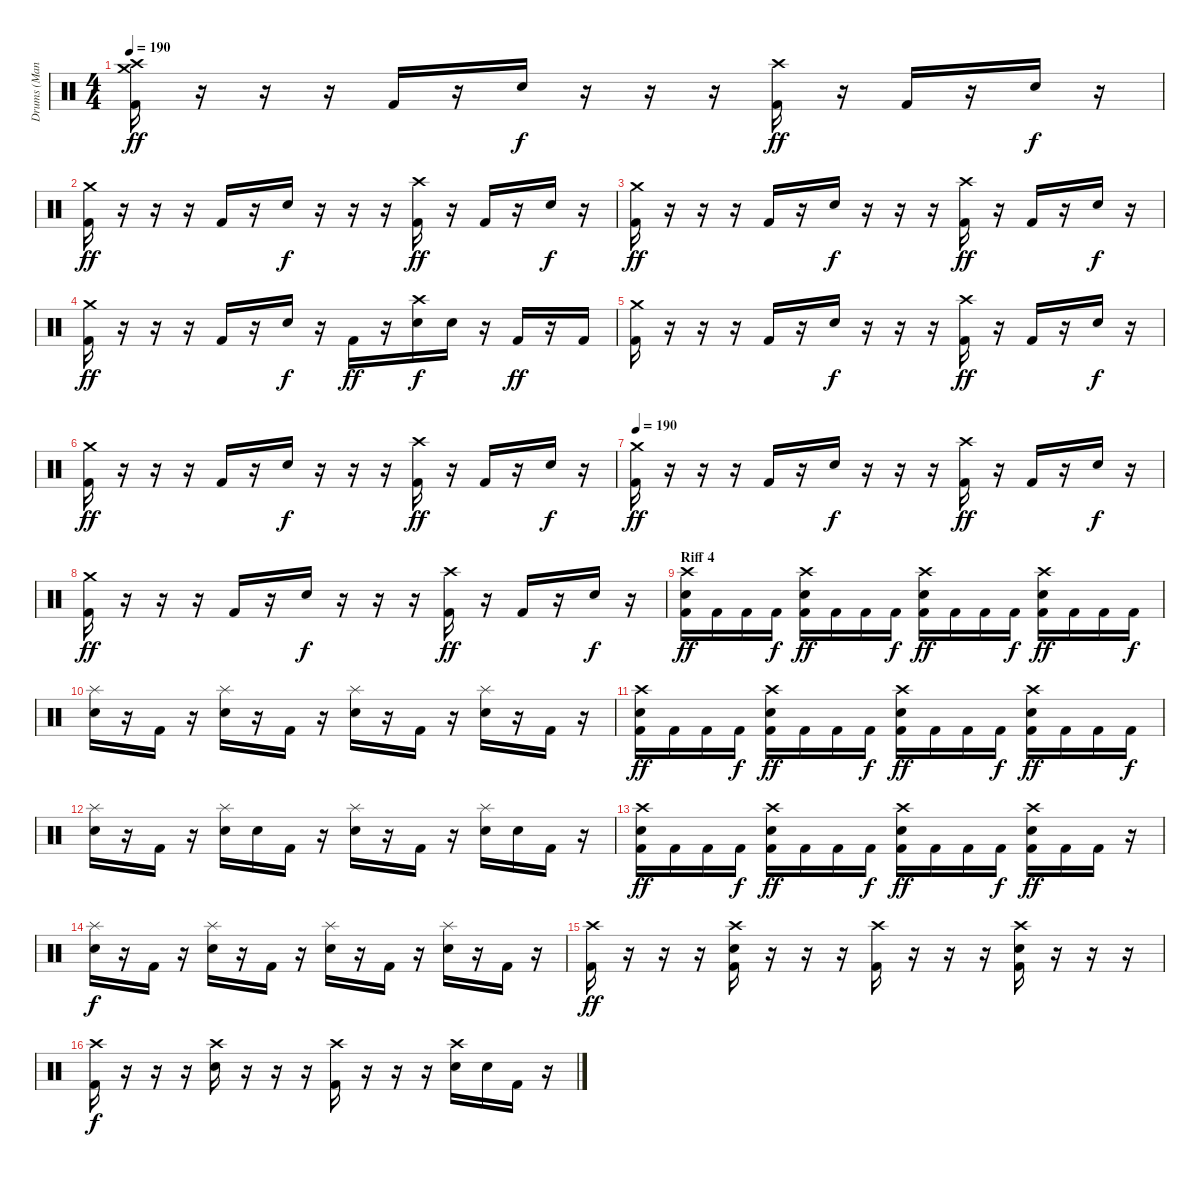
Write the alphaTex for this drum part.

\track ("Drums (Mancino)" "Drums (Man") {instrument percussion}
\staff {score}
\articulation defaults
\ts (4 4)
\tempo 190
\clef neutral
\ks c
("Crash medium (hit)" "Crash high (hit)" "Kick (hit) 2").16{dy ff} r.16 r.16 r.16 "Kick (hit) 2".16 r.16 "Electric Snare (hit)".16{dy f} r.16 r.16 r.16 ("Crash high (hit)" "Kick (hit) 2").16{dy ff} r.16 "Kick (hit) 2".16 r.16 "Electric Snare (hit)".16{dy f} r.16 |
("Crash medium (hit)" "Kick (hit) 2").16{dy ff} r.16 r.16 r.16 "Kick (hit) 2".16 r.16 "Electric Snare (hit)".16{dy f} r.16 r.16 r.16 ("Crash high (hit)" "Kick (hit) 2").16{dy ff} r.16 "Kick (hit) 2".16 r.16 "Electric Snare (hit)".16{dy f} r.16 |
("Crash medium (hit)" "Kick (hit) 2").16{dy ff} r.16 r.16 r.16 "Kick (hit) 2".16 r.16 "Electric Snare (hit)".16{dy f} r.16 r.16 r.16 ("Crash high (hit)" "Kick (hit) 2").16{dy ff} r.16 "Kick (hit) 2".16 r.16 "Electric Snare (hit)".16{dy f} r.16 |
("Crash medium (hit)" "Kick (hit) 2").16{dy ff} r.16 r.16 r.16 "Kick (hit) 2".16 r.16 "Electric Snare (hit)".16{dy f} r.16 "Kick (hit) 2".16{dy ff} r.16 ("Crash high (hit)" "Electric Snare (hit)").16{dy f} "Electric Snare (hit)".16 r.16 "Kick (hit) 2".16{dy ff} r.16 "Kick (hit) 2".16 |
("Crash medium (hit)" "Kick (hit) 2").16 r.16 r.16 r.16 "Kick (hit) 2".16 r.16 "Electric Snare (hit)".16{dy f} r.16 r.16 r.16 ("Crash high (hit)" "Kick (hit) 2").16{dy ff} r.16 "Kick (hit) 2".16 r.16 "Electric Snare (hit)".16{dy f} r.16 |
("Crash medium (hit)" "Kick (hit) 2").16{dy ff} r.16 r.16 r.16 "Kick (hit) 2".16 r.16 "Electric Snare (hit)".16{dy f} r.16 r.16 r.16 ("Crash high (hit)" "Kick (hit) 2").16{dy ff} r.16 "Kick (hit) 2".16 r.16 "Electric Snare (hit)".16{dy f} r.16 |
\tempo 190
("Crash medium (hit)" "Kick (hit) 2").16{dy ff} r.16 r.16 r.16 "Kick (hit) 2".16 r.16 "Electric Snare (hit)".16{dy f} r.16 r.16 r.16 ("Crash high (hit)" "Kick (hit) 2").16{dy ff} r.16 "Kick (hit) 2".16 r.16 "Electric Snare (hit)".16{dy f} r.16 |
("Crash medium (hit)" "Kick (hit) 2").16{dy ff} r.16 r.16 r.16 "Kick (hit) 2".16 r.16 "Electric Snare (hit)".16{dy f} r.16 r.16 r.16 ("Crash high (hit)" "Kick (hit) 2").16{dy ff} r.16 "Kick (hit) 2".16 r.16 "Electric Snare (hit)".16{dy f} r.16 |
\section ("" "Riff 4")
("Crash high (hit)" "Electric Snare (hit)" "Kick (hit) 2").16{dy ff} "Kick (hit) 2".16 "Kick (hit) 2".16 "Kick (hit) 2".16{dy f} ("Crash high (hit)" "Electric Snare (hit)" "Kick (hit) 2").16{dy ff} "Kick (hit) 2".16 "Kick (hit) 2".16 "Kick (hit) 2".16{dy f} ("Crash high (hit)" "Electric Snare (hit)" "Kick (hit) 2").16{dy ff} "Kick (hit) 2".16 "Kick (hit) 2".16 "Kick (hit) 2".16{dy f} ("Crash high (hit)" "Electric Snare (hit)" "Kick (hit) 2").16{dy ff} "Kick (hit) 2".16 "Kick (hit) 2".16 "Kick (hit) 2".16{dy f} |
("Splash (hit)" "Electric Snare (hit)").16 r.16 "Kick (hit) 2".16 r.16 ("Splash (hit)" "Electric Snare (hit)").16 r.16 "Kick (hit) 2".16 r.16 ("Splash (hit)" "Electric Snare (hit)").16 r.16 "Kick (hit) 2".16 r.16 ("Splash (hit)" "Electric Snare (hit)").16 r.16 "Kick (hit) 2".16 r.16 |
("Crash high (hit)" "Electric Snare (hit)" "Kick (hit) 2").16{dy ff} "Kick (hit) 2".16 "Kick (hit) 2".16 "Kick (hit) 2".16{dy f} ("Crash high (hit)" "Electric Snare (hit)" "Kick (hit) 2").16{dy ff} "Kick (hit) 2".16 "Kick (hit) 2".16 "Kick (hit) 2".16{dy f} ("Crash high (hit)" "Electric Snare (hit)" "Kick (hit) 2").16{dy ff} "Kick (hit) 2".16 "Kick (hit) 2".16 "Kick (hit) 2".16{dy f} ("Crash high (hit)" "Electric Snare (hit)" "Kick (hit) 2").16{dy ff} "Kick (hit) 2".16 "Kick (hit) 2".16 "Kick (hit) 2".16{dy f} |
("Splash (hit)" "Electric Snare (hit)").16 r.16 "Kick (hit) 2".16 r.16 ("Splash (hit)" "Electric Snare (hit)").16 "Electric Snare (hit)".16 "Kick (hit) 2".16 r.16 ("Splash (hit)" "Electric Snare (hit)").16 r.16 "Kick (hit) 2".16 r.16 ("Splash (hit)" "Electric Snare (hit)").16 "Electric Snare (hit)".16 "Kick (hit) 2".16 r.16 |
("Crash high (hit)" "Electric Snare (hit)" "Kick (hit) 2").16{dy ff} "Kick (hit) 2".16 "Kick (hit) 2".16 "Kick (hit) 2".16{dy f} ("Crash high (hit)" "Electric Snare (hit)" "Kick (hit) 2").16{dy ff} "Kick (hit) 2".16 "Kick (hit) 2".16 "Kick (hit) 2".16{dy f} ("Crash high (hit)" "Electric Snare (hit)" "Kick (hit) 2").16{dy ff} "Kick (hit) 2".16 "Kick (hit) 2".16 "Kick (hit) 2".16{dy f} ("Crash high (hit)" "Electric Snare (hit)" "Kick (hit) 2").16{dy ff} "Kick (hit) 2".16 "Kick (hit) 2".16 r.16 |
("Splash (hit)" "Electric Snare (hit)").16{dy f} r.16 "Kick (hit) 2".16 r.16 ("Splash (hit)" "Electric Snare (hit)").16 r.16 "Kick (hit) 2".16 r.16 ("Splash (hit)" "Electric Snare (hit)").16 r.16 "Kick (hit) 2".16 r.16 ("Splash (hit)" "Electric Snare (hit)").16 r.16 "Kick (hit) 2".16 r.16 |
("Crash high (hit)" "Kick (hit) 2").16{dy ff} r.16 r.16 r.16 ("Crash high (hit)" "Electric Snare (hit)" "Kick (hit) 2").16 r.16 r.16 r.16 ("Crash high (hit)" "Kick (hit) 2").16 r.16 r.16 r.16 ("Crash high (hit)" "Electric Snare (hit)" "Kick (hit) 2").16 r.16 r.16 r.16 |
("Crash high (hit)" "Kick (hit) 2").16{dy f} r.16 r.16 r.16 ("Crash high (hit)" "Electric Snare (hit)").16 r.16 r.16 r.16 ("Crash high (hit)" "Kick (hit) 2").16 r.16 r.16 r.16 ("Crash high (hit)" "Electric Snare (hit)").16 "Electric Snare (hit)".16 "Kick (hit) 2".16 r.16
